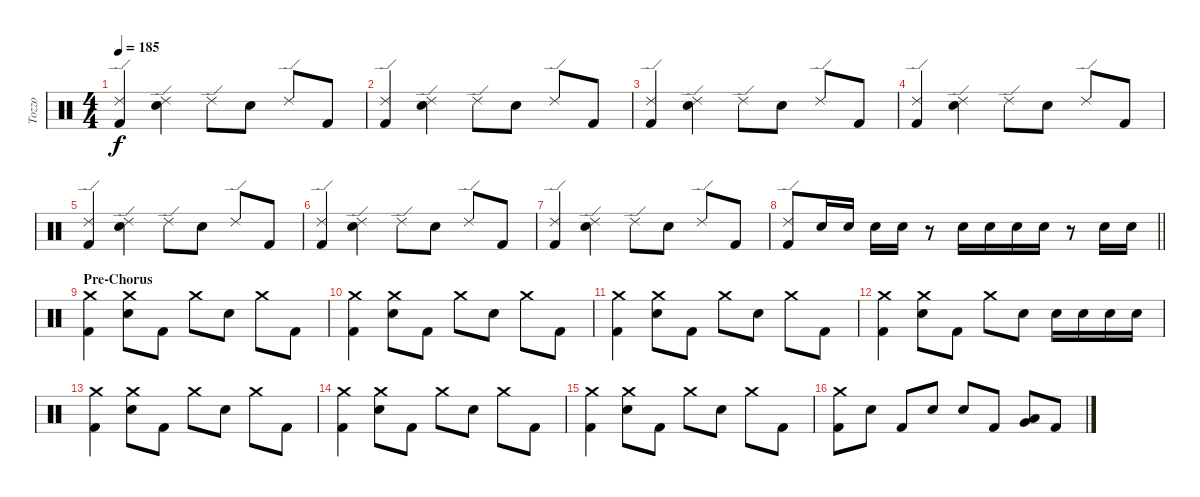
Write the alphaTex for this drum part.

\track ("Tozzo" "Tozzo") {instrument percussion}
\staff {score}
\articulation defaults
\ts (4 4)
\tempo 185
\clef neutral
\ks c
("Ride (edge) 2" "Kick (hit) 2").4{dy f} ("Ride (edge) 2" "Electric Snare (hit)").4 "Ride (edge) 2".8 "Electric Snare (hit)".8 "Ride (edge) 2".8 "Kick (hit) 2".8 |
("Ride (edge) 2" "Kick (hit) 2").4 ("Ride (edge) 2" "Electric Snare (hit)").4 "Ride (edge) 2".8 "Electric Snare (hit)".8 "Ride (edge) 2".8 "Kick (hit) 2".8 |
("Ride (edge) 2" "Kick (hit) 2").4 ("Ride (edge) 2" "Electric Snare (hit)").4 "Ride (edge) 2".8 "Electric Snare (hit)".8 "Ride (edge) 2".8 "Kick (hit) 2".8 |
("Ride (edge) 2" "Kick (hit) 2").4 ("Ride (edge) 2" "Electric Snare (hit)").4 "Ride (edge) 2".8 "Electric Snare (hit)".8 "Ride (edge) 2".8 "Kick (hit) 2".8 |
("Ride (edge) 2" "Kick (hit) 2").4 ("Ride (edge) 2" "Electric Snare (hit)").4 "Ride (edge) 2".8 "Electric Snare (hit)".8 "Ride (edge) 2".8 "Kick (hit) 2".8 |
("Ride (edge) 2" "Kick (hit) 2").4 ("Ride (edge) 2" "Electric Snare (hit)").4 "Ride (edge) 2".8 "Electric Snare (hit)".8 "Ride (edge) 2".8 "Kick (hit) 2".8 |
("Ride (edge) 2" "Kick (hit) 2").4 ("Ride (edge) 2" "Electric Snare (hit)").4 "Ride (edge) 2".8 "Electric Snare (hit)".8 "Ride (edge) 2".8 "Kick (hit) 2".8 |
\barLineRight lightlight
("Ride (edge) 2" "Kick (hit) 2").8 "Electric Snare (hit)".16 "Electric Snare (hit)".16 "Electric Snare (hit)".16 "Electric Snare (hit)".16 r.8 "Electric Snare (hit)".16 "Electric Snare (hit)".16 "Electric Snare (hit)".16 "Electric Snare (hit)".16 r.8 "Electric Snare (hit)".16 "Electric Snare (hit)".16 |
\section ("" "Pre-Chorus")
("Crash medium (hit)" "Kick (hit) 2").4 ("Crash medium (hit)" "Electric Snare (hit)").8 "Kick (hit) 2".8 "Crash medium (hit)".8 "Electric Snare (hit)".8 "Crash medium (hit)".8 "Kick (hit) 2".8 |
("Crash medium (hit)" "Kick (hit) 2").4 ("Crash medium (hit)" "Electric Snare (hit)").8 "Kick (hit) 2".8 "Crash medium (hit)".8 "Electric Snare (hit)".8 "Crash medium (hit)".8 "Kick (hit) 2".8 |
("Crash medium (hit)" "Kick (hit) 2").4 ("Crash medium (hit)" "Electric Snare (hit)").8 "Kick (hit) 2".8 "Crash medium (hit)".8 "Electric Snare (hit)".8 "Crash medium (hit)".8 "Kick (hit) 2".8 |
("Crash medium (hit)" "Kick (hit) 2").4 ("Crash medium (hit)" "Electric Snare (hit)").8 "Kick (hit) 2".8 "Crash medium (hit)".8 "Electric Snare (hit)".8 "Electric Snare (hit)".16 "Electric Snare (hit)".16 "Electric Snare (hit)".16 "Electric Snare (hit)".16 |
("Crash medium (hit)" "Kick (hit) 2").4 ("Crash medium (hit)" "Electric Snare (hit)").8 "Kick (hit) 2".8 "Crash medium (hit)".8 "Electric Snare (hit)".8 "Crash medium (hit)".8 "Kick (hit) 2".8 |
("Crash medium (hit)" "Kick (hit) 2").4 ("Crash medium (hit)" "Electric Snare (hit)").8 "Kick (hit) 2".8 "Crash medium (hit)".8 "Electric Snare (hit)".8 "Crash medium (hit)".8 "Kick (hit) 2".8 |
("Crash medium (hit)" "Kick (hit) 2").4 ("Crash medium (hit)" "Electric Snare (hit)").8 "Kick (hit) 2".8 "Crash medium (hit)".8 "Electric Snare (hit)".8 "Crash medium (hit)".8 "Kick (hit) 2".8 |
("Crash medium (hit)" "Kick (hit) 2").8 "Electric Snare (hit)".8 "Kick (hit) 2".8 "Electric Snare (hit)".8 "Electric Snare (hit)".8 "Kick (hit) 2".8 ("Low Tom (hit)" "Very Low Tom (hit)").8 "Kick (hit) 2".8
